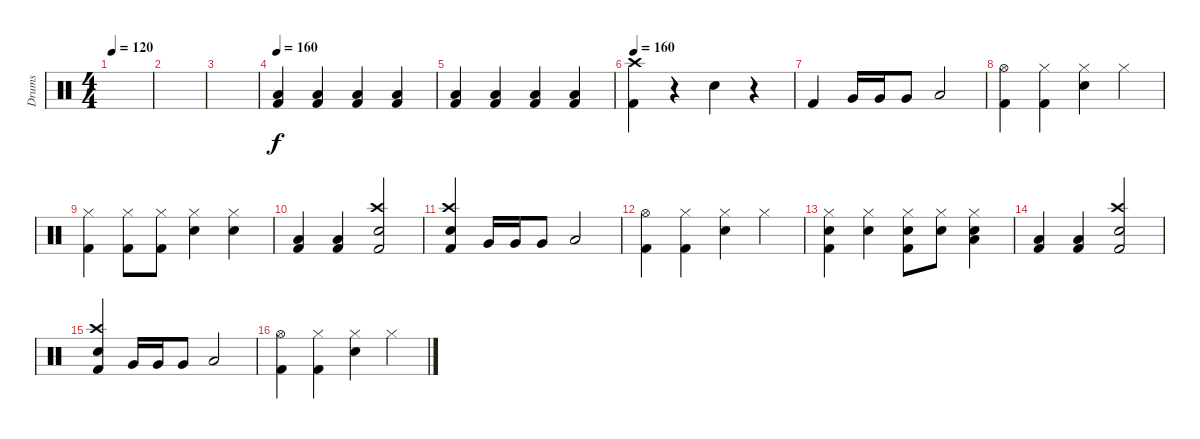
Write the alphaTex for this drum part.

\track ("Drums" "Drums") {instrument percussion}
\staff {score}
\articulation defaults
\ts (4 4)
\tempo 120
\clef neutral
\ks c
|
|
|
\tempo 160
("Low Floor Tom (hit)" "Kick (hit) 2").4 ("Kick (hit) 2" "Low Floor Tom (hit)").4 ("Low Floor Tom (hit)" "Kick (hit) 2").4 ("Low Floor Tom (hit)" "Kick (hit) 2").4 |
("Low Floor Tom (hit)" "Kick (hit) 2").4 ("Low Floor Tom (hit)" "Kick (hit) 2").4 ("Low Floor Tom (hit)" "Kick (hit) 2").4 ("Low Floor Tom (hit)" "Kick (hit) 2").4 |
\tempo 160
("Crash high (hit)" "Kick (hit) 2").4 r.4 "Snare (hit) 2".4 r.4 |
"Kick (hit) 2".4 "Very Low Tom (hit)".16 "Very Low Tom (hit)".16 "Very Low Tom (hit)".8 "Low Floor Tom (hit)".2 |
("Hi-Hat (open)" "Kick (hit) 2").4 ("Hi-Hat (closed)" "Kick (hit) 2").4 ("Hi-Hat (closed)" "Snare (hit) 2").4 "Hi-Hat (closed)".4 |
("Hi-Hat (closed)" "Kick (hit) 2").4 ("Hi-Hat (closed)" "Kick (hit) 2").8 ("Hi-Hat (closed)" "Kick (hit) 2").8 ("Hi-Hat (closed)" "Snare (hit) 2").4 ("Hi-Hat (closed)" "Snare (hit) 2").4 |
("Low Floor Tom (hit)" "Kick (hit) 2").4 ("Low Floor Tom (hit)" "Kick (hit) 2").4 ("Kick (hit) 2" "Crash high (hit)" "Snare (hit) 2").2 |
("Kick (hit) 2" "Crash high (hit)" "Snare (hit) 2").4 "Very Low Tom (hit)".16 "Very Low Tom (hit)".16 "Very Low Tom (hit)".8 "Low Floor Tom (hit)".2 |
("Hi-Hat (open)" "Kick (hit) 2").4 ("Hi-Hat (closed)" "Kick (hit) 2").4 ("Hi-Hat (closed)" "Snare (hit) 2").4 "Hi-Hat (closed)".4 |
("Hi-Hat (closed)" "Snare (hit) 2" "Kick (hit) 2").4 ("Hi-Hat (closed)" "Snare (hit) 2").4 ("Hi-Hat (closed)" "Snare (hit) 2" "Kick (hit) 2").8 ("Hi-Hat (closed)" "Snare (hit) 2").8 ("Hi-Hat (closed)" "Snare (hit) 2" "Low Floor Tom (hit)").4 |
("Low Floor Tom (hit)" "Kick (hit) 2").4 ("Low Floor Tom (hit)" "Kick (hit) 2").4 ("Kick (hit) 2" "Crash high (hit)" "Snare (hit) 2").2 |
("Kick (hit) 2" "Crash high (hit)" "Snare (hit) 2").4 "Very Low Tom (hit)".16 "Very Low Tom (hit)".16 "Very Low Tom (hit)".8 "Low Floor Tom (hit)".2 |
("Hi-Hat (open)" "Kick (hit) 2").4 ("Hi-Hat (closed)" "Kick (hit) 2").4 ("Hi-Hat (closed)" "Snare (hit) 2").4 "Hi-Hat (closed)".4
